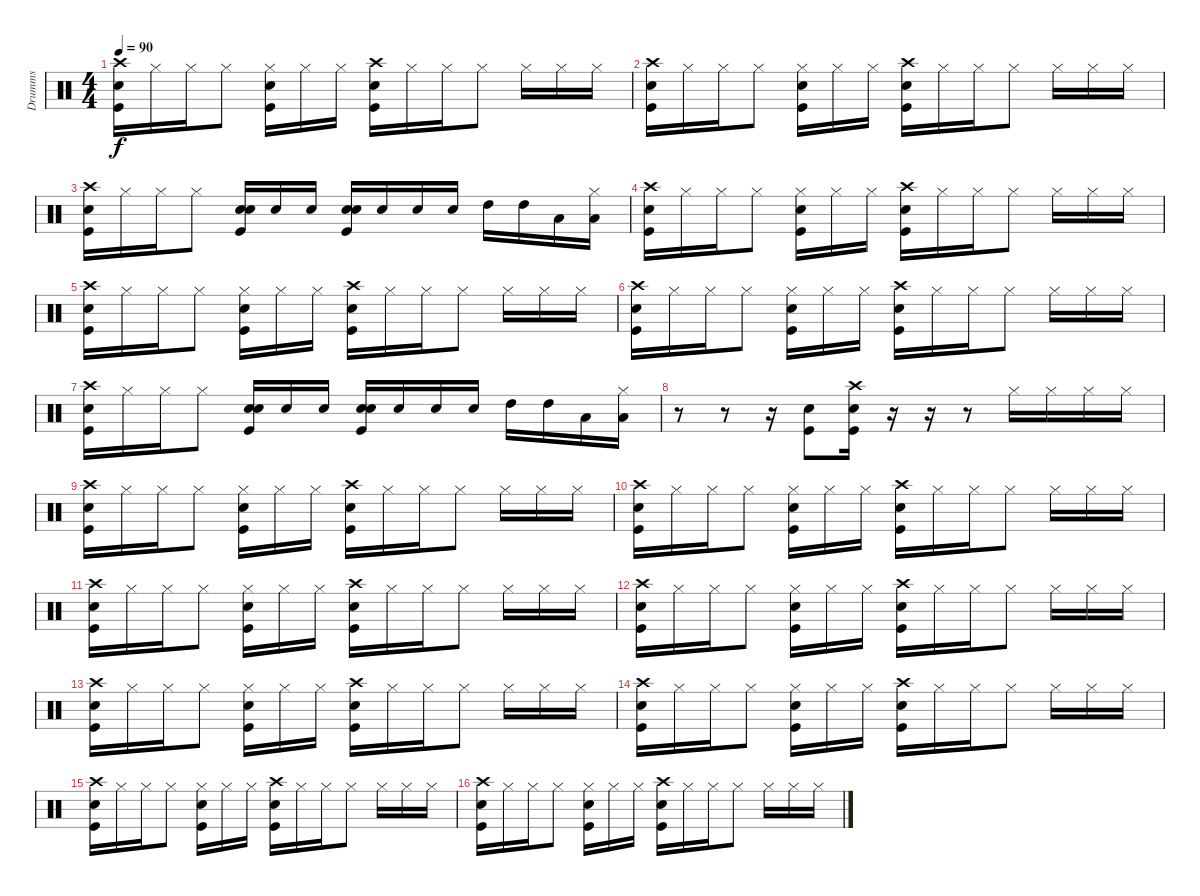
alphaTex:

\track ("Drumms" "Drumms") {instrument percussion}
\staff {score}
\articulation defaults
\ts (4 4)
\tempo 90
\clef neutral
\ks c
("Crash high (hit)" "Snare (hit) 2" "Kick (hit)").16{dy f} "Hi-Hat (closed)".16 "Hi-Hat (closed)".16 "Hi-Hat (closed)".8 ("Hi-Hat (closed)" "Snare (hit) 2" "Kick (hit)").16 "Hi-Hat (closed)".16 "Hi-Hat (closed)".16 ("Crash high (hit)" "Snare (hit) 2" "Kick (hit)").16 "Hi-Hat (closed)".16 "Hi-Hat (closed)".16 "Hi-Hat (closed)".8 "Hi-Hat (closed)".16 "Hi-Hat (closed)".16 "Hi-Hat (closed)".16 |
("Crash high (hit)" "Snare (hit) 2" "Kick (hit)").16 "Hi-Hat (closed)".16 "Hi-Hat (closed)".16 "Hi-Hat (closed)".8 ("Hi-Hat (closed)" "Snare (hit) 2" "Kick (hit)").16 "Hi-Hat (closed)".16 "Hi-Hat (closed)".16 ("Crash high (hit)" "Snare (hit) 2" "Kick (hit)").16 "Hi-Hat (closed)".16 "Hi-Hat (closed)".16 "Hi-Hat (closed)".8 "Hi-Hat (closed)".16 "Hi-Hat (closed)".16 "Hi-Hat (closed)".16 |
("Crash high (hit)" "Snare (hit) 2" "Kick (hit)").16 "Hi-Hat (closed)".16 "Hi-Hat (closed)".16 "Hi-Hat (closed)".8 ("Snare (hit) 2" "Snare (hit) 2" "Kick (hit)").16 "Snare (hit) 2".16 "Snare (hit) 2".16 ("Snare (hit) 2" "Snare (hit) 2" "Kick (hit)").16 "Snare (hit) 2".16 "Snare (hit) 2".16 "Snare (hit) 2".16 "High Tom (hit)".16 "High Tom (hit)".16 "Low Tom (hit)".16 ("Low Tom (hit)" "Hi-Hat (closed)").16 |
("Crash high (hit)" "Snare (hit) 2" "Kick (hit)").16 "Hi-Hat (closed)".16 "Hi-Hat (closed)".16 "Hi-Hat (closed)".8 ("Hi-Hat (closed)" "Snare (hit) 2" "Kick (hit)").16 "Hi-Hat (closed)".16 "Hi-Hat (closed)".16 ("Crash high (hit)" "Snare (hit) 2" "Kick (hit)").16 "Hi-Hat (closed)".16 "Hi-Hat (closed)".16 "Hi-Hat (closed)".8 "Hi-Hat (closed)".16 "Hi-Hat (closed)".16 "Hi-Hat (closed)".16 |
("Crash high (hit)" "Snare (hit) 2" "Kick (hit)").16 "Hi-Hat (closed)".16 "Hi-Hat (closed)".16 "Hi-Hat (closed)".8 ("Hi-Hat (closed)" "Snare (hit) 2" "Kick (hit)").16 "Hi-Hat (closed)".16 "Hi-Hat (closed)".16 ("Crash high (hit)" "Snare (hit) 2" "Kick (hit)").16 "Hi-Hat (closed)".16 "Hi-Hat (closed)".16 "Hi-Hat (closed)".8 "Hi-Hat (closed)".16 "Hi-Hat (closed)".16 "Hi-Hat (closed)".16 |
("Crash high (hit)" "Snare (hit) 2" "Kick (hit)").16 "Hi-Hat (closed)".16 "Hi-Hat (closed)".16 "Hi-Hat (closed)".8 ("Hi-Hat (closed)" "Snare (hit) 2" "Kick (hit)").16 "Hi-Hat (closed)".16 "Hi-Hat (closed)".16 ("Crash high (hit)" "Snare (hit) 2" "Kick (hit)").16 "Hi-Hat (closed)".16 "Hi-Hat (closed)".16 "Hi-Hat (closed)".8 "Hi-Hat (closed)".16 "Hi-Hat (closed)".16 "Hi-Hat (closed)".16 |
("Crash high (hit)" "Snare (hit) 2" "Kick (hit)").16 "Hi-Hat (closed)".16 "Hi-Hat (closed)".16 "Hi-Hat (closed)".8 ("Snare (hit) 2" "Snare (hit) 2" "Kick (hit)").16 "Snare (hit) 2".16 "Snare (hit) 2".16 ("Snare (hit) 2" "Snare (hit) 2" "Kick (hit)").16 "Snare (hit) 2".16 "Snare (hit) 2".16 "Snare (hit) 2".16 "High Tom (hit)".16 "High Tom (hit)".16 "Low Tom (hit)".16 ("Low Tom (hit)" "Hi-Hat (closed)").16 |
r.8 r.8 r.16 ("Snare (hit) 2" "Kick (hit)").8 ("Crash high (hit)" "Snare (hit) 2" "Kick (hit)").16 r.16 r.16 r.8 "Hi-Hat (closed)".16 "Hi-Hat (closed)".16 "Hi-Hat (closed)".16 "Hi-Hat (closed)".16 |
("Crash high (hit)" "Snare (hit) 2" "Kick (hit)").16 "Hi-Hat (closed)".16 "Hi-Hat (closed)".16 "Hi-Hat (closed)".8 ("Hi-Hat (closed)" "Snare (hit) 2" "Kick (hit)").16 "Hi-Hat (closed)".16 "Hi-Hat (closed)".16 ("Crash high (hit)" "Snare (hit) 2" "Kick (hit)").16 "Hi-Hat (closed)".16 "Hi-Hat (closed)".16 "Hi-Hat (closed)".8 "Hi-Hat (closed)".16 "Hi-Hat (closed)".16 "Hi-Hat (closed)".16 |
("Crash high (hit)" "Snare (hit) 2" "Kick (hit)").16 "Hi-Hat (closed)".16 "Hi-Hat (closed)".16 "Hi-Hat (closed)".8 ("Hi-Hat (closed)" "Snare (hit) 2" "Kick (hit)").16 "Hi-Hat (closed)".16 "Hi-Hat (closed)".16 ("Crash high (hit)" "Snare (hit) 2" "Kick (hit)").16 "Hi-Hat (closed)".16 "Hi-Hat (closed)".16 "Hi-Hat (closed)".8 "Hi-Hat (closed)".16 "Hi-Hat (closed)".16 "Hi-Hat (closed)".16 |
("Crash high (hit)" "Snare (hit) 2" "Kick (hit)").16 "Hi-Hat (closed)".16 "Hi-Hat (closed)".16 "Hi-Hat (closed)".8 ("Hi-Hat (closed)" "Snare (hit) 2" "Kick (hit)").16 "Hi-Hat (closed)".16 "Hi-Hat (closed)".16 ("Crash high (hit)" "Snare (hit) 2" "Kick (hit)").16 "Hi-Hat (closed)".16 "Hi-Hat (closed)".16 "Hi-Hat (closed)".8 "Hi-Hat (closed)".16 "Hi-Hat (closed)".16 "Hi-Hat (closed)".16 |
("Crash high (hit)" "Snare (hit) 2" "Kick (hit)").16 "Hi-Hat (closed)".16 "Hi-Hat (closed)".16 "Hi-Hat (closed)".8 ("Hi-Hat (closed)" "Snare (hit) 2" "Kick (hit)").16 "Hi-Hat (closed)".16 "Hi-Hat (closed)".16 ("Crash high (hit)" "Snare (hit) 2" "Kick (hit)").16 "Hi-Hat (closed)".16 "Hi-Hat (closed)".16 "Hi-Hat (closed)".8 "Hi-Hat (closed)".16 "Hi-Hat (closed)".16 "Hi-Hat (closed)".16 |
("Crash high (hit)" "Snare (hit) 2" "Kick (hit)").16 "Hi-Hat (closed)".16 "Hi-Hat (closed)".16 "Hi-Hat (closed)".8 ("Hi-Hat (closed)" "Snare (hit) 2" "Kick (hit)").16 "Hi-Hat (closed)".16 "Hi-Hat (closed)".16 ("Crash high (hit)" "Snare (hit) 2" "Kick (hit)").16 "Hi-Hat (closed)".16 "Hi-Hat (closed)".16 "Hi-Hat (closed)".8 "Hi-Hat (closed)".16 "Hi-Hat (closed)".16 "Hi-Hat (closed)".16 |
("Crash high (hit)" "Snare (hit) 2" "Kick (hit)").16 "Hi-Hat (closed)".16 "Hi-Hat (closed)".16 "Hi-Hat (closed)".8 ("Hi-Hat (closed)" "Snare (hit) 2" "Kick (hit)").16 "Hi-Hat (closed)".16 "Hi-Hat (closed)".16 ("Crash high (hit)" "Snare (hit) 2" "Kick (hit)").16 "Hi-Hat (closed)".16 "Hi-Hat (closed)".16 "Hi-Hat (closed)".8 "Hi-Hat (closed)".16 "Hi-Hat (closed)".16 "Hi-Hat (closed)".16 |
("Crash high (hit)" "Snare (hit) 2" "Kick (hit)").16 "Hi-Hat (closed)".16 "Hi-Hat (closed)".16 "Hi-Hat (closed)".8 ("Hi-Hat (closed)" "Snare (hit) 2" "Kick (hit)").16 "Hi-Hat (closed)".16 "Hi-Hat (closed)".16 ("Crash high (hit)" "Snare (hit) 2" "Kick (hit)").16 "Hi-Hat (closed)".16 "Hi-Hat (closed)".16 "Hi-Hat (closed)".8 "Hi-Hat (closed)".16 "Hi-Hat (closed)".16 "Hi-Hat (closed)".16 |
("Crash high (hit)" "Snare (hit) 2" "Kick (hit)").16 "Hi-Hat (closed)".16 "Hi-Hat (closed)".16 "Hi-Hat (closed)".8 ("Hi-Hat (closed)" "Snare (hit) 2" "Kick (hit)").16 "Hi-Hat (closed)".16 "Hi-Hat (closed)".16 ("Crash high (hit)" "Snare (hit) 2" "Kick (hit)").16 "Hi-Hat (closed)".16 "Hi-Hat (closed)".16 "Hi-Hat (closed)".8 "Hi-Hat (closed)".16 "Hi-Hat (closed)".16 "Hi-Hat (closed)".16
